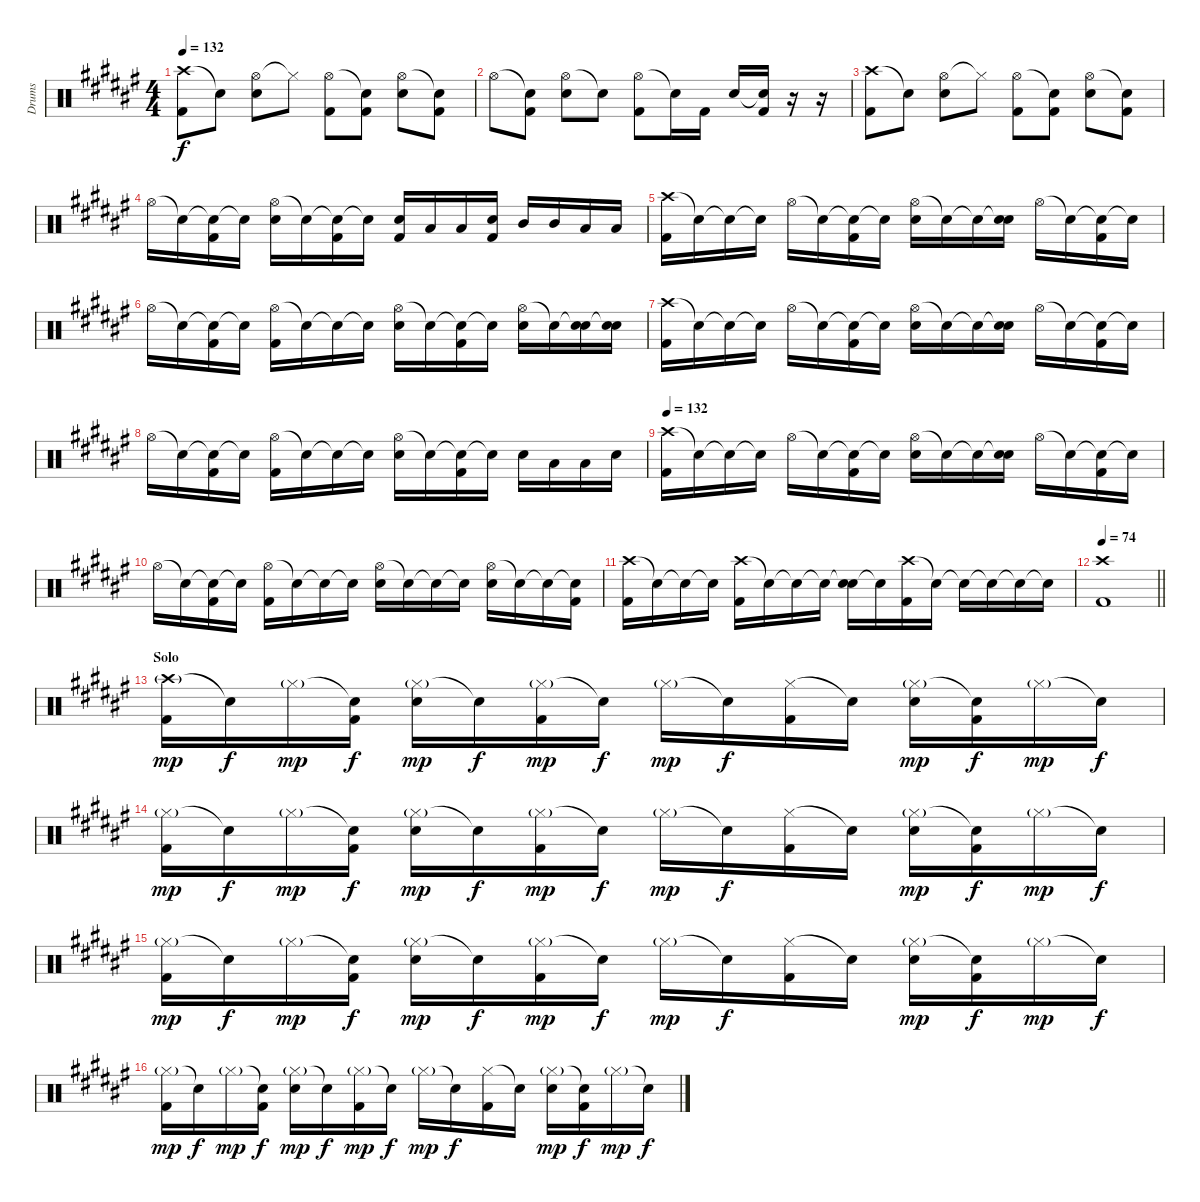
\track ("Drums" "Drums") {instrument percussion}
\staff {score}
\articulation defaults
\ts (4 4)
\tempo 132
\clef neutral
\ks f#
("Crash high (hit)" "Kick (hit) 2").8{dy f} "Snare (hit)"{t}.8 ("Hi-Hat (open)" "Electric Snare (hit)").8 "Hi-Hat (closed)"{t}.8 ("Hi-Hat (open)" "Kick (hit) 2").8 ("Snare (hit)"{t} "Kick (hit) 2").8 ("Hi-Hat (open)" "Electric Snare (hit)").8 ("Snare (hit)"{t} "Kick (hit) 2").8 |
"Hi-Hat (open)".8 ("Snare (hit)"{t} "Kick (hit) 2").8 ("Hi-Hat (open)" "Electric Snare (hit)").8 "Snare (hit)"{t}.8 ("Hi-Hat (open)" "Kick (hit) 2").8 "Snare (hit)"{t}.16 "Kick (hit) 2".16 "Electric Snare (hit)".16 ("Snare (hit)"{t} "Kick (hit) 2").16 r.16 r.16 |
("Crash high (hit)" "Kick (hit) 2").8 "Snare (hit)"{t}.8 ("Hi-Hat (open)" "Electric Snare (hit)").8 "Hi-Hat (closed)"{t}.8 ("Hi-Hat (open)" "Kick (hit) 2").8 ("Snare (hit)"{t} "Kick (hit) 2").8 ("Hi-Hat (open)" "Electric Snare (hit)").8 ("Snare (hit)"{t} "Kick (hit) 2").8 |
"Hi-Hat (open)".16 "Snare (hit)"{t}.16 ("Snare (hit)"{t} "Kick (hit) 2").16 "Snare (hit)"{t}.16 ("Hi-Hat (open)" "Electric Snare (hit)").16 "Snare (hit)"{t}.16 ("Snare (hit)"{t} "Kick (hit) 2").16 "Snare (hit)"{t}.16 ("Electric Snare (hit)" "Kick (hit) 2").16 "Low Tom (hit)".16 "Low Tom (hit)".16 ("Electric Snare (hit)" "Kick (hit) 2").16 "Mid Tom (hit)".16 "Mid Tom (hit)".16 "Low Floor Tom (hit)".16 "Low Floor Tom (hit)".16 |
("Crash high (hit)" "Kick (hit) 2").16 "Snare (hit)"{t}.16 "Snare (hit)"{t}.16 "Snare (hit)"{t}.16 "Hi-Hat (open)".16 "Snare (hit)"{t}.16 ("Snare (hit)"{t} "Kick (hit) 2").16 "Snare (hit)"{t}.16 ("Hi-Hat (open)" "Electric Snare (hit)").16 "Snare (hit)"{t}.16 "Snare (hit)"{t}.16 ("Snare (hit)"{t} "Electric Snare (hit)").16 "Hi-Hat (open)".16 "Snare (hit)"{t}.16 ("Snare (hit)"{t} "Kick (hit) 2").16 "Snare (hit)"{t}.16 |
"Hi-Hat (open)".16 "Snare (hit)"{t}.16 ("Snare (hit)"{t} "Kick (hit) 2").16 "Snare (hit)"{t}.16 ("Hi-Hat (open)" "Kick (hit) 2").16 "Snare (hit)"{t}.16 "Snare (hit)"{t}.16 "Snare (hit)"{t}.16 ("Hi-Hat (open)" "Electric Snare (hit)").16 "Snare (hit)"{t}.16 ("Snare (hit)"{t} "Kick (hit) 2").16 "Snare (hit)"{t}.16 ("Hi-Hat (open)" "Electric Snare (hit)").16 "Snare (hit)"{t}.16 ("Snare (hit)"{t} "Electric Snare (hit)").16 ("Snare (hit)"{t} "Electric Snare (hit)").16 |
("Crash high (hit)" "Kick (hit) 2").16 "Snare (hit)"{t}.16 "Snare (hit)"{t}.16 "Snare (hit)"{t}.16 "Hi-Hat (open)".16 "Snare (hit)"{t}.16 ("Snare (hit)"{t} "Kick (hit) 2").16 "Snare (hit)"{t}.16 ("Hi-Hat (open)" "Electric Snare (hit)").16 "Snare (hit)"{t}.16 "Snare (hit)"{t}.16 ("Snare (hit)"{t} "Electric Snare (hit)").16 "Hi-Hat (open)".16 "Snare (hit)"{t}.16 ("Snare (hit)"{t} "Kick (hit) 2").16 "Snare (hit)"{t}.16 |
"Hi-Hat (open)".16 "Snare (hit)"{t}.16 ("Snare (hit)"{t} "Kick (hit) 2").16 "Snare (hit)"{t}.16 ("Hi-Hat (open)" "Kick (hit) 2").16 "Snare (hit)"{t}.16 "Snare (hit)"{t}.16 "Snare (hit)"{t}.16 ("Hi-Hat (open)" "Electric Snare (hit)").16 "Snare (hit)"{t}.16 ("Snare (hit)"{t} "Kick (hit) 2").16 "Snare (hit)"{t}.16 "Electric Snare (hit)".16 "Low Tom (hit)".16 "Low Tom (hit)".16 "Electric Snare (hit)".16 |
\tempo 132
("Crash high (hit)" "Kick (hit) 2").16 "Snare (hit)"{t}.16 "Snare (hit)"{t}.16 "Snare (hit)"{t}.16 "Hi-Hat (open)".16 "Snare (hit)"{t}.16 ("Snare (hit)"{t} "Kick (hit) 2").16 "Snare (hit)"{t}.16 ("Hi-Hat (open)" "Electric Snare (hit)").16 "Snare (hit)"{t}.16 "Snare (hit)"{t}.16 ("Snare (hit)"{t} "Electric Snare (hit)").16 "Hi-Hat (open)".16 "Snare (hit)"{t}.16 ("Snare (hit)"{t} "Kick (hit) 2").16 "Snare (hit)"{t}.16 |
"Hi-Hat (open)".16 "Snare (hit)"{t}.16 ("Snare (hit)"{t} "Kick (hit) 2").16 "Snare (hit)"{t}.16 ("Hi-Hat (open)" "Kick (hit) 2").16 "Snare (hit)"{t}.16 "Snare (hit)"{t}.16 "Snare (hit)"{t}.16 ("Hi-Hat (open)" "Electric Snare (hit)").16 "Snare (hit)"{t}.16 "Snare (hit)"{t}.16 "Snare (hit)"{t}.16 ("Hi-Hat (open)" "Electric Snare (hit)").16 "Snare (hit)"{t}.16 "Snare (hit)"{t}.16 ("Snare (hit)"{t} "Kick (hit) 2").16 |
("Crash high (hit)" "Kick (hit) 2").16 "Snare (hit)"{t}.16 "Snare (hit)"{t}.16 "Snare (hit)"{t}.16 ("Crash high (hit)" "Kick (hit) 2").16 "Snare (hit)"{t}.16 "Snare (hit)"{t}.16 "Snare (hit)"{t}.16 ("Snare (hit)"{t} "Electric Snare (hit)").16 "Snare (hit)"{t}.16 ("Crash high (hit)" "Kick (hit) 2").16 "Snare (hit)"{t}.16 "Snare (hit)"{t}.16 "Snare (hit)"{t}.16 "Snare (hit)"{t}.16 "Snare (hit)"{t}.16 |
\tempo 74
\barLineRight lightlight
("Crash high (hit)" "Kick (hit) 2").1 |
\section ("" "Solo")
("Crash high (hit)"{g} "Kick (hit) 2").16{dy mp} "Snare (hit)"{t}.16{dy f} "Hi-Hat (closed)"{g}.16{dy mp} ("Snare (hit)"{t} "Kick (hit) 2").16{dy f} ("Hi-Hat (closed)"{g} "Electric Snare (hit)").16{dy mp} "Snare (hit)"{t}.16{dy f} ("Hi-Hat (closed)"{g} "Kick (hit) 2").16{dy mp} "Snare (hit)"{t}.16{dy f} "Hi-Hat (closed)"{g}.16{dy mp} "Snare (hit)"{t}.16{dy f} ("Hi-Hat (closed)" "Kick (hit) 2").16 "Snare (hit)"{t}.16 ("Hi-Hat (closed)"{g} "Electric Snare (hit)").16{dy mp} ("Snare (hit)"{t} "Kick (hit) 2").16{dy f} "Hi-Hat (closed)"{g}.16{dy mp} "Snare (hit)"{t}.16{dy f} |
("Hi-Hat (closed)"{g} "Kick (hit) 2").16{dy mp} "Snare (hit)"{t}.16{dy f} "Hi-Hat (closed)"{g}.16{dy mp} ("Snare (hit)"{t} "Kick (hit) 2").16{dy f} ("Hi-Hat (closed)"{g} "Electric Snare (hit)").16{dy mp} "Snare (hit)"{t}.16{dy f} ("Hi-Hat (closed)"{g} "Kick (hit) 2").16{dy mp} "Snare (hit)"{t}.16{dy f} "Hi-Hat (closed)"{g}.16{dy mp} "Snare (hit)"{t}.16{dy f} ("Hi-Hat (closed)" "Kick (hit) 2").16 "Snare (hit)"{t}.16 ("Hi-Hat (closed)"{g} "Electric Snare (hit)").16{dy mp} ("Snare (hit)"{t} "Kick (hit) 2").16{dy f} "Hi-Hat (closed)"{g}.16{dy mp} "Snare (hit)"{t}.16{dy f} |
("Hi-Hat (closed)"{g} "Kick (hit) 2").16{dy mp} "Snare (hit)"{t}.16{dy f} "Hi-Hat (closed)"{g}.16{dy mp} ("Snare (hit)"{t} "Kick (hit) 2").16{dy f} ("Hi-Hat (closed)"{g} "Electric Snare (hit)").16{dy mp} "Snare (hit)"{t}.16{dy f} ("Hi-Hat (closed)"{g} "Kick (hit) 2").16{dy mp} "Snare (hit)"{t}.16{dy f} "Hi-Hat (closed)"{g}.16{dy mp} "Snare (hit)"{t}.16{dy f} ("Hi-Hat (closed)" "Kick (hit) 2").16 "Snare (hit)"{t}.16 ("Hi-Hat (closed)"{g} "Electric Snare (hit)").16{dy mp} ("Snare (hit)"{t} "Kick (hit) 2").16{dy f} "Hi-Hat (closed)"{g}.16{dy mp} "Snare (hit)"{t}.16{dy f} |
("Hi-Hat (closed)"{g} "Kick (hit) 2").16{dy mp} "Snare (hit)"{t}.16{dy f} "Hi-Hat (closed)"{g}.16{dy mp} ("Snare (hit)"{t} "Kick (hit) 2").16{dy f} ("Hi-Hat (closed)"{g} "Electric Snare (hit)").16{dy mp} "Snare (hit)"{t}.16{dy f} ("Hi-Hat (closed)"{g} "Kick (hit) 2").16{dy mp} "Snare (hit)"{t}.16{dy f} "Hi-Hat (closed)"{g}.16{dy mp} "Snare (hit)"{t}.16{dy f} ("Hi-Hat (closed)" "Kick (hit) 2").16 "Snare (hit)"{t}.16 ("Hi-Hat (closed)"{g} "Electric Snare (hit)").16{dy mp} ("Snare (hit)"{t} "Kick (hit) 2").16{dy f} "Hi-Hat (closed)"{g}.16{dy mp} "Snare (hit)"{t}.16{dy f}
